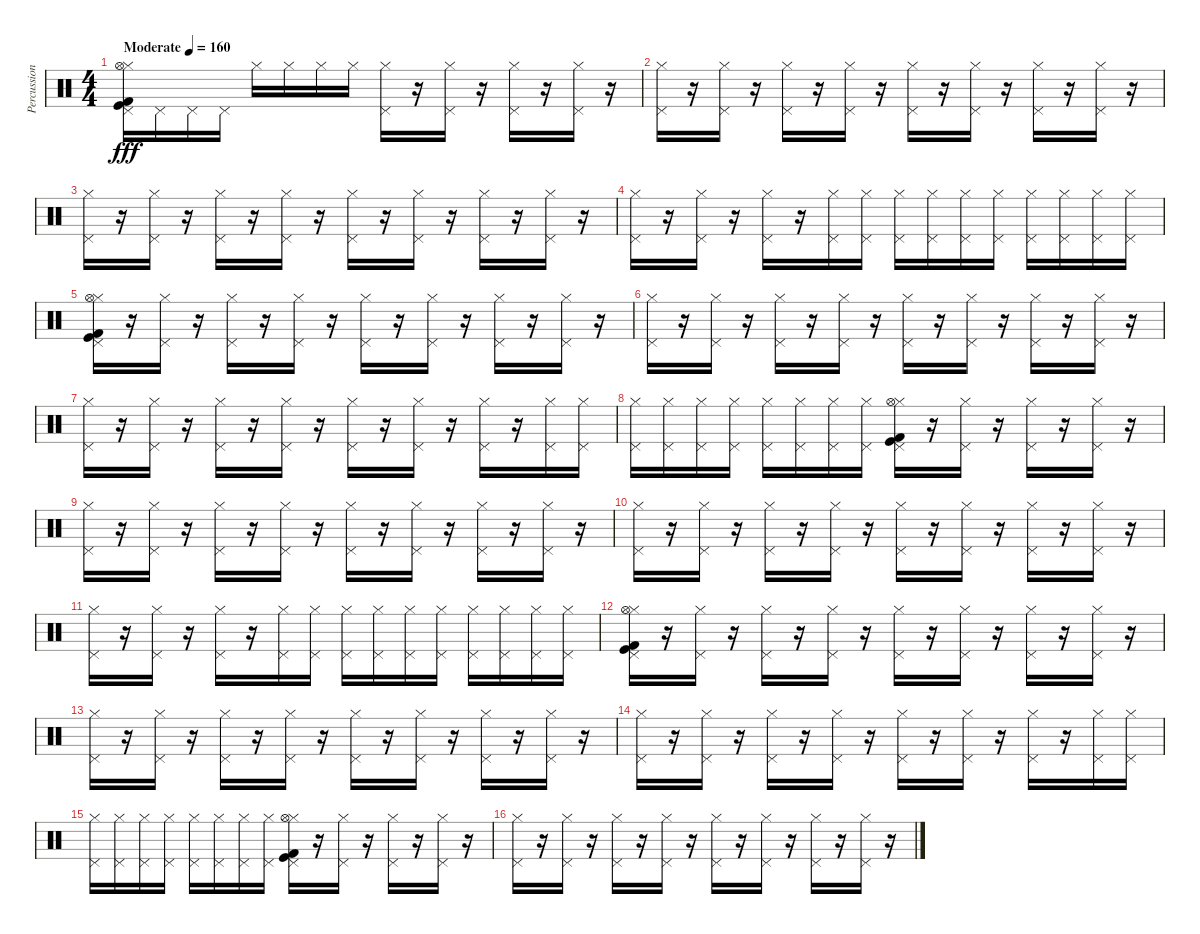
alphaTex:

\track ("Percussion" "Percussion") {instrument percussion}
\staff {score}
\articulation defaults
\ts (4 4)
\tempo (160 "Moderate")
\clef neutral
\ks c
("Kick (hit) 2" "Pedal Hi-Hat (hit)" "Hi-Hat (closed)" "Kick (hit)" "Hi-Hat (open)").16{dy fff} "Pedal Hi-Hat (hit)".16 "Pedal Hi-Hat (hit)".16 "Pedal Hi-Hat (hit)".16 "Hi-Hat (closed)".16 "Hi-Hat (closed)".16 "Hi-Hat (closed)".16 "Hi-Hat (closed)".16 ("Pedal Hi-Hat (hit)" "Hi-Hat (closed)").16 r.16 ("Pedal Hi-Hat (hit)" "Hi-Hat (closed)").16 r.16 ("Pedal Hi-Hat (hit)" "Hi-Hat (closed)").16 r.16 ("Pedal Hi-Hat (hit)" "Hi-Hat (closed)").16 r.16 |
("Pedal Hi-Hat (hit)" "Hi-Hat (closed)").16 r.16 ("Pedal Hi-Hat (hit)" "Hi-Hat (closed)").16 r.16 ("Pedal Hi-Hat (hit)" "Hi-Hat (closed)").16 r.16 ("Pedal Hi-Hat (hit)" "Hi-Hat (closed)").16 r.16 ("Pedal Hi-Hat (hit)" "Hi-Hat (closed)").16 r.16 ("Pedal Hi-Hat (hit)" "Hi-Hat (closed)").16 r.16 ("Pedal Hi-Hat (hit)" "Hi-Hat (closed)").16 r.16 ("Pedal Hi-Hat (hit)" "Hi-Hat (closed)").16 r.16 |
("Pedal Hi-Hat (hit)" "Hi-Hat (closed)").16 r.16 ("Pedal Hi-Hat (hit)" "Hi-Hat (closed)").16 r.16 ("Pedal Hi-Hat (hit)" "Hi-Hat (closed)").16 r.16 ("Pedal Hi-Hat (hit)" "Hi-Hat (closed)").16 r.16 ("Pedal Hi-Hat (hit)" "Hi-Hat (closed)").16 r.16 ("Pedal Hi-Hat (hit)" "Hi-Hat (closed)").16 r.16 ("Pedal Hi-Hat (hit)" "Hi-Hat (closed)").16 r.16 ("Pedal Hi-Hat (hit)" "Hi-Hat (closed)").16 r.16 |
("Pedal Hi-Hat (hit)" "Hi-Hat (closed)").16 r.16 ("Pedal Hi-Hat (hit)" "Hi-Hat (closed)").16 r.16 ("Pedal Hi-Hat (hit)" "Hi-Hat (closed)").16 r.16 ("Pedal Hi-Hat (hit)" "Hi-Hat (closed)").16 ("Hi-Hat (closed)" "Pedal Hi-Hat (hit)").16 ("Pedal Hi-Hat (hit)" "Hi-Hat (closed)").16 ("Hi-Hat (closed)" "Pedal Hi-Hat (hit)").16 ("Hi-Hat (closed)" "Pedal Hi-Hat (hit)").16 ("Hi-Hat (closed)" "Pedal Hi-Hat (hit)").16 ("Pedal Hi-Hat (hit)" "Hi-Hat (closed)").16 ("Hi-Hat (closed)" "Pedal Hi-Hat (hit)").16 ("Hi-Hat (closed)" "Pedal Hi-Hat (hit)").16 ("Hi-Hat (closed)" "Pedal Hi-Hat (hit)").16 |
("Kick (hit) 2" "Pedal Hi-Hat (hit)" "Hi-Hat (closed)" "Kick (hit)" "Hi-Hat (open)").16 r.16 ("Pedal Hi-Hat (hit)" "Hi-Hat (closed)").16 r.16 ("Pedal Hi-Hat (hit)" "Hi-Hat (closed)").16 r.16 ("Pedal Hi-Hat (hit)" "Hi-Hat (closed)").16 r.16 ("Pedal Hi-Hat (hit)" "Hi-Hat (closed)").16 r.16 ("Pedal Hi-Hat (hit)" "Hi-Hat (closed)").16 r.16 ("Pedal Hi-Hat (hit)" "Hi-Hat (closed)").16 r.16 ("Pedal Hi-Hat (hit)" "Hi-Hat (closed)").16 r.16 |
("Pedal Hi-Hat (hit)" "Hi-Hat (closed)").16 r.16 ("Pedal Hi-Hat (hit)" "Hi-Hat (closed)").16 r.16 ("Pedal Hi-Hat (hit)" "Hi-Hat (closed)").16 r.16 ("Pedal Hi-Hat (hit)" "Hi-Hat (closed)").16 r.16 ("Pedal Hi-Hat (hit)" "Hi-Hat (closed)").16 r.16 ("Pedal Hi-Hat (hit)" "Hi-Hat (closed)").16 r.16 ("Pedal Hi-Hat (hit)" "Hi-Hat (closed)").16 r.16 ("Pedal Hi-Hat (hit)" "Hi-Hat (closed)").16 r.16 |
("Pedal Hi-Hat (hit)" "Hi-Hat (closed)").16 r.16 ("Pedal Hi-Hat (hit)" "Hi-Hat (closed)").16 r.16 ("Pedal Hi-Hat (hit)" "Hi-Hat (closed)").16 r.16 ("Pedal Hi-Hat (hit)" "Hi-Hat (closed)").16 r.16 ("Pedal Hi-Hat (hit)" "Hi-Hat (closed)").16 r.16 ("Pedal Hi-Hat (hit)" "Hi-Hat (closed)").16 r.16 ("Pedal Hi-Hat (hit)" "Hi-Hat (closed)").16 r.16 ("Pedal Hi-Hat (hit)" "Hi-Hat (closed)").16 ("Hi-Hat (closed)" "Pedal Hi-Hat (hit)").16 |
("Pedal Hi-Hat (hit)" "Hi-Hat (closed)").16 ("Hi-Hat (closed)" "Pedal Hi-Hat (hit)").16 ("Hi-Hat (closed)" "Pedal Hi-Hat (hit)").16 ("Hi-Hat (closed)" "Pedal Hi-Hat (hit)").16 ("Pedal Hi-Hat (hit)" "Hi-Hat (closed)").16 ("Hi-Hat (closed)" "Pedal Hi-Hat (hit)").16 ("Hi-Hat (closed)" "Pedal Hi-Hat (hit)").16 ("Hi-Hat (closed)" "Pedal Hi-Hat (hit)").16 ("Kick (hit) 2" "Pedal Hi-Hat (hit)" "Hi-Hat (closed)" "Kick (hit)" "Hi-Hat (open)").16 r.16 ("Pedal Hi-Hat (hit)" "Hi-Hat (closed)").16 r.16 ("Pedal Hi-Hat (hit)" "Hi-Hat (closed)").16 r.16 ("Pedal Hi-Hat (hit)" "Hi-Hat (closed)").16 r.16 |
("Pedal Hi-Hat (hit)" "Hi-Hat (closed)").16 r.16 ("Pedal Hi-Hat (hit)" "Hi-Hat (closed)").16 r.16 ("Pedal Hi-Hat (hit)" "Hi-Hat (closed)").16 r.16 ("Pedal Hi-Hat (hit)" "Hi-Hat (closed)").16 r.16 ("Pedal Hi-Hat (hit)" "Hi-Hat (closed)").16 r.16 ("Pedal Hi-Hat (hit)" "Hi-Hat (closed)").16 r.16 ("Pedal Hi-Hat (hit)" "Hi-Hat (closed)").16 r.16 ("Pedal Hi-Hat (hit)" "Hi-Hat (closed)").16 r.16 |
("Pedal Hi-Hat (hit)" "Hi-Hat (closed)").16 r.16 ("Pedal Hi-Hat (hit)" "Hi-Hat (closed)").16 r.16 ("Pedal Hi-Hat (hit)" "Hi-Hat (closed)").16 r.16 ("Pedal Hi-Hat (hit)" "Hi-Hat (closed)").16 r.16 ("Pedal Hi-Hat (hit)" "Hi-Hat (closed)").16 r.16 ("Pedal Hi-Hat (hit)" "Hi-Hat (closed)").16 r.16 ("Pedal Hi-Hat (hit)" "Hi-Hat (closed)").16 r.16 ("Pedal Hi-Hat (hit)" "Hi-Hat (closed)").16 r.16 |
("Pedal Hi-Hat (hit)" "Hi-Hat (closed)").16 r.16 ("Pedal Hi-Hat (hit)" "Hi-Hat (closed)").16 r.16 ("Pedal Hi-Hat (hit)" "Hi-Hat (closed)").16 r.16 ("Pedal Hi-Hat (hit)" "Hi-Hat (closed)").16 ("Hi-Hat (closed)" "Pedal Hi-Hat (hit)").16 ("Pedal Hi-Hat (hit)" "Hi-Hat (closed)").16 ("Hi-Hat (closed)" "Pedal Hi-Hat (hit)").16 ("Hi-Hat (closed)" "Pedal Hi-Hat (hit)").16 ("Hi-Hat (closed)" "Pedal Hi-Hat (hit)").16 ("Pedal Hi-Hat (hit)" "Hi-Hat (closed)").16 ("Hi-Hat (closed)" "Pedal Hi-Hat (hit)").16 ("Hi-Hat (closed)" "Pedal Hi-Hat (hit)").16 ("Hi-Hat (closed)" "Pedal Hi-Hat (hit)").16 |
("Kick (hit) 2" "Pedal Hi-Hat (hit)" "Hi-Hat (closed)" "Kick (hit)" "Hi-Hat (open)").16 r.16 ("Pedal Hi-Hat (hit)" "Hi-Hat (closed)").16 r.16 ("Pedal Hi-Hat (hit)" "Hi-Hat (closed)").16 r.16 ("Pedal Hi-Hat (hit)" "Hi-Hat (closed)").16 r.16 ("Pedal Hi-Hat (hit)" "Hi-Hat (closed)").16 r.16 ("Pedal Hi-Hat (hit)" "Hi-Hat (closed)").16 r.16 ("Pedal Hi-Hat (hit)" "Hi-Hat (closed)").16 r.16 ("Pedal Hi-Hat (hit)" "Hi-Hat (closed)").16 r.16 |
("Pedal Hi-Hat (hit)" "Hi-Hat (closed)").16 r.16 ("Pedal Hi-Hat (hit)" "Hi-Hat (closed)").16 r.16 ("Pedal Hi-Hat (hit)" "Hi-Hat (closed)").16 r.16 ("Pedal Hi-Hat (hit)" "Hi-Hat (closed)").16 r.16 ("Pedal Hi-Hat (hit)" "Hi-Hat (closed)").16 r.16 ("Pedal Hi-Hat (hit)" "Hi-Hat (closed)").16 r.16 ("Pedal Hi-Hat (hit)" "Hi-Hat (closed)").16 r.16 ("Pedal Hi-Hat (hit)" "Hi-Hat (closed)").16 r.16 |
("Pedal Hi-Hat (hit)" "Hi-Hat (closed)").16 r.16 ("Pedal Hi-Hat (hit)" "Hi-Hat (closed)").16 r.16 ("Pedal Hi-Hat (hit)" "Hi-Hat (closed)").16 r.16 ("Pedal Hi-Hat (hit)" "Hi-Hat (closed)").16 r.16 ("Pedal Hi-Hat (hit)" "Hi-Hat (closed)").16 r.16 ("Pedal Hi-Hat (hit)" "Hi-Hat (closed)").16 r.16 ("Pedal Hi-Hat (hit)" "Hi-Hat (closed)").16 r.16 ("Pedal Hi-Hat (hit)" "Hi-Hat (closed)").16 ("Hi-Hat (closed)" "Pedal Hi-Hat (hit)").16 |
("Pedal Hi-Hat (hit)" "Hi-Hat (closed)").16 ("Hi-Hat (closed)" "Pedal Hi-Hat (hit)").16 ("Hi-Hat (closed)" "Pedal Hi-Hat (hit)").16 ("Hi-Hat (closed)" "Pedal Hi-Hat (hit)").16 ("Pedal Hi-Hat (hit)" "Hi-Hat (closed)").16 ("Hi-Hat (closed)" "Pedal Hi-Hat (hit)").16 ("Hi-Hat (closed)" "Pedal Hi-Hat (hit)").16 ("Hi-Hat (closed)" "Pedal Hi-Hat (hit)").16 ("Kick (hit) 2" "Pedal Hi-Hat (hit)" "Hi-Hat (closed)" "Kick (hit)" "Hi-Hat (open)").16 r.16 ("Pedal Hi-Hat (hit)" "Hi-Hat (closed)").16 r.16 ("Pedal Hi-Hat (hit)" "Hi-Hat (closed)").16 r.16 ("Pedal Hi-Hat (hit)" "Hi-Hat (closed)").16 r.16 |
("Pedal Hi-Hat (hit)" "Hi-Hat (closed)").16 r.16 ("Pedal Hi-Hat (hit)" "Hi-Hat (closed)").16 r.16 ("Pedal Hi-Hat (hit)" "Hi-Hat (closed)").16 r.16 ("Pedal Hi-Hat (hit)" "Hi-Hat (closed)").16 r.16 ("Pedal Hi-Hat (hit)" "Hi-Hat (closed)").16 r.16 ("Pedal Hi-Hat (hit)" "Hi-Hat (closed)").16 r.16 ("Pedal Hi-Hat (hit)" "Hi-Hat (closed)").16 r.16 ("Pedal Hi-Hat (hit)" "Hi-Hat (closed)").16 r.16
